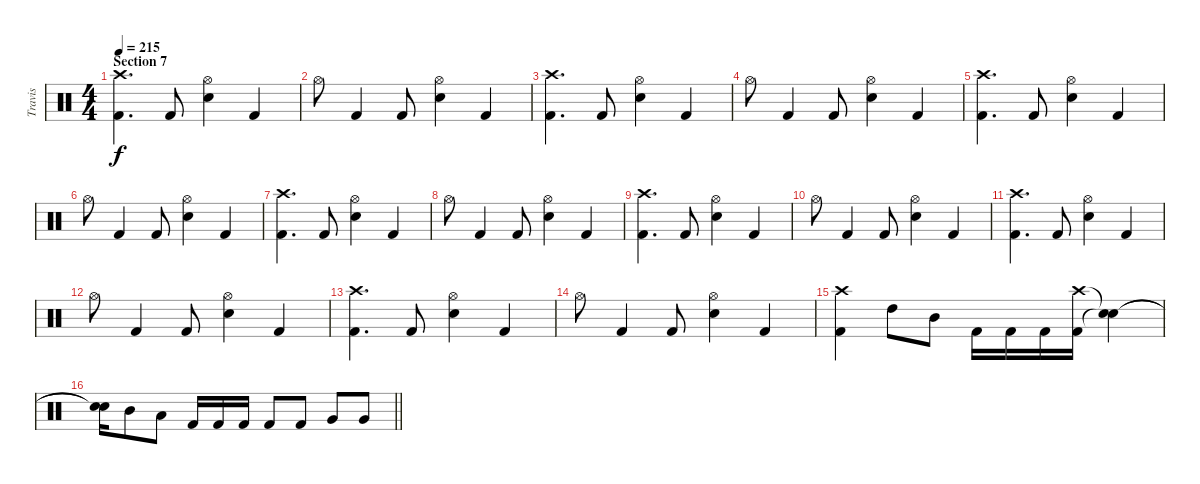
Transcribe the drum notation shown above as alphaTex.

\track ("Travis" "Travis") {instrument percussion}
\staff {score}
\articulation defaults
\ts (4 4)
\section ("" "Section 7")
\tempo 215
\clef neutral
\ks c
("Crash high (hit)" "Kick (hit) 2").4{d dy f} "Kick (hit) 2".8 ("Hi-Hat (open)" "Snare (hit) 2").4 "Kick (hit) 2".4 |
"Hi-Hat (open)".8 "Kick (hit) 2".4 "Kick (hit) 2".8 ("Hi-Hat (open)" "Snare (hit) 2").4 "Kick (hit) 2".4 |
("Crash high (hit)" "Kick (hit) 2").4{d} "Kick (hit) 2".8 ("Hi-Hat (open)" "Snare (hit) 2").4 "Kick (hit) 2".4 |
"Hi-Hat (open)".8 "Kick (hit) 2".4 "Kick (hit) 2".8 ("Hi-Hat (open)" "Snare (hit) 2").4 "Kick (hit) 2".4 |
("Crash high (hit)" "Kick (hit) 2").4{d} "Kick (hit) 2".8 ("Hi-Hat (open)" "Snare (hit) 2").4 "Kick (hit) 2".4 |
"Hi-Hat (open)".8 "Kick (hit) 2".4 "Kick (hit) 2".8 ("Hi-Hat (open)" "Snare (hit) 2").4 "Kick (hit) 2".4 |
("Crash high (hit)" "Kick (hit) 2").4{d} "Kick (hit) 2".8 ("Hi-Hat (open)" "Snare (hit) 2").4 "Kick (hit) 2".4 |
"Hi-Hat (open)".8 "Kick (hit) 2".4 "Kick (hit) 2".8 ("Hi-Hat (open)" "Snare (hit) 2").4 "Kick (hit) 2".4 |
("Crash high (hit)" "Kick (hit) 2").4{d} "Kick (hit) 2".8 ("Hi-Hat (open)" "Snare (hit) 2").4 "Kick (hit) 2".4 |
"Hi-Hat (open)".8 "Kick (hit) 2".4 "Kick (hit) 2".8 ("Hi-Hat (open)" "Snare (hit) 2").4 "Kick (hit) 2".4 |
("Crash high (hit)" "Kick (hit) 2").4{d} "Kick (hit) 2".8 ("Hi-Hat (open)" "Snare (hit) 2").4 "Kick (hit) 2".4 |
"Hi-Hat (open)".8 "Kick (hit) 2".4 "Kick (hit) 2".8 ("Hi-Hat (open)" "Snare (hit) 2").4 "Kick (hit) 2".4 |
("Crash high (hit)" "Kick (hit) 2").4{d} "Kick (hit) 2".8 ("Hi-Hat (open)" "Snare (hit) 2").4 "Kick (hit) 2".4 |
"Hi-Hat (open)".8 "Kick (hit) 2".4 "Kick (hit) 2".8 ("Hi-Hat (open)" "Snare (hit) 2").4 "Kick (hit) 2".4 |
("Crash high (hit)" "Kick (hit) 2").4 "High Tom (hit)".8 "Mid Tom (hit)".8 "Kick (hit) 2".16 "Kick (hit) 2".16 "Kick (hit) 2".16 ("Crash high (hit)" "Kick (hit) 2").16 ("Snare (hit)"{t} "Snare (hit)"{t}).4 |
\barLineRight lightlight
("Snare (hit)"{t} "Snare (hit)"{t}).16 "Mid Tom (hit)".8 "Low Tom (hit)".8 "Kick (hit) 2".16 "Kick (hit) 2".16 "Kick (hit) 2".16 "Kick (hit) 2".8 "Kick (hit) 2".8 "Very Low Tom (hit)".8 "Very Low Tom (hit)".8
